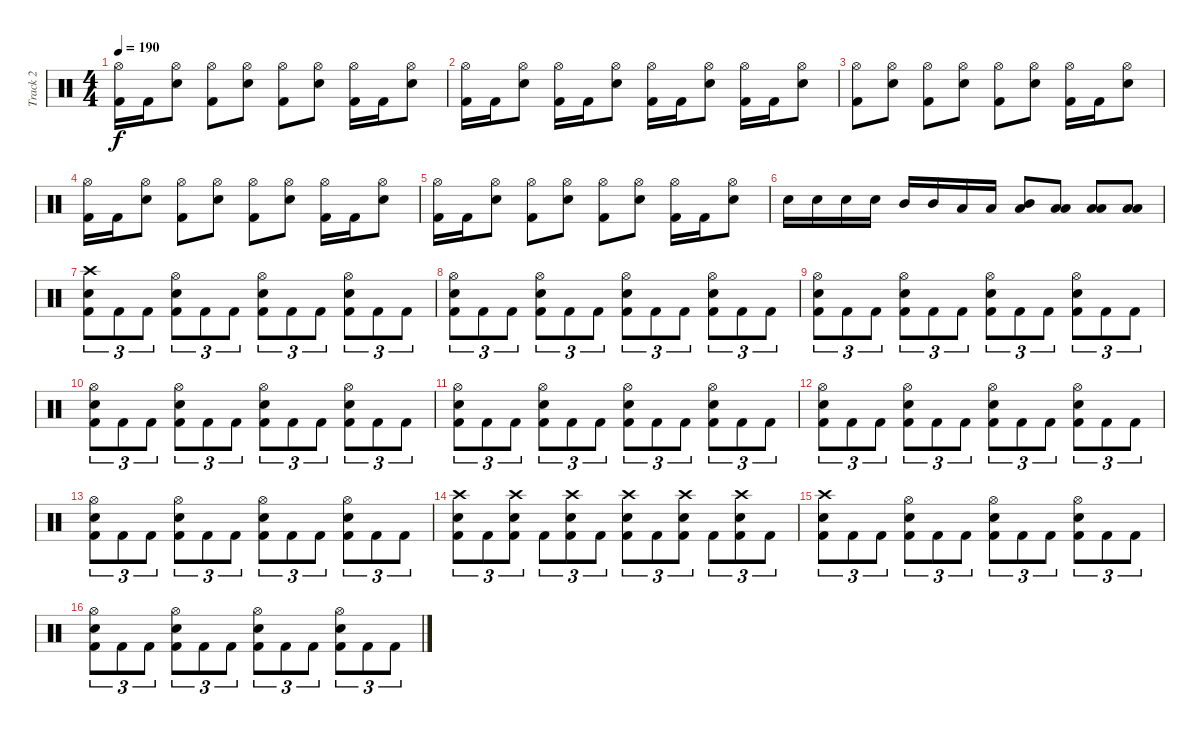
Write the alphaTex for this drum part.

\track ("Track 2" "Track 2") {instrument percussion}
\staff {score}
\articulation defaults
\ts (4 4)
\tempo 190
\clef neutral
\ks c
("Hi-Hat (open)" "Kick (hit) 2").16{dy f} "Kick (hit) 2".16 ("Hi-Hat (open)" "Snare (hit) 2").8 ("Hi-Hat (open)" "Kick (hit) 2").8 ("Hi-Hat (open)" "Snare (hit) 2").8 ("Hi-Hat (open)" "Kick (hit) 2").8 ("Hi-Hat (open)" "Snare (hit) 2").8 ("Hi-Hat (open)" "Kick (hit) 2").16 "Kick (hit) 2".16 ("Hi-Hat (open)" "Snare (hit) 2").8 |
("Hi-Hat (open)" "Kick (hit) 2").16 "Kick (hit) 2".16 ("Hi-Hat (open)" "Snare (hit) 2").8 ("Hi-Hat (open)" "Kick (hit) 2").16 "Kick (hit) 2".16 ("Hi-Hat (open)" "Snare (hit) 2").8 ("Hi-Hat (open)" "Kick (hit) 2").16 "Kick (hit) 2".16 ("Hi-Hat (open)" "Snare (hit) 2").8 ("Hi-Hat (open)" "Kick (hit) 2").16 "Kick (hit) 2".16 ("Hi-Hat (open)" "Snare (hit) 2").8 |
("Hi-Hat (open)" "Kick (hit) 2").8 ("Hi-Hat (open)" "Snare (hit) 2").8 ("Hi-Hat (open)" "Kick (hit) 2").8 ("Hi-Hat (open)" "Snare (hit) 2").8 ("Hi-Hat (open)" "Kick (hit) 2").8 ("Hi-Hat (open)" "Snare (hit) 2").8 ("Hi-Hat (open)" "Kick (hit) 2").16 "Kick (hit) 2".16 ("Hi-Hat (open)" "Snare (hit) 2").8 |
("Hi-Hat (open)" "Kick (hit) 2").16 "Kick (hit) 2".16 ("Hi-Hat (open)" "Snare (hit) 2").8 ("Hi-Hat (open)" "Kick (hit) 2").8 ("Hi-Hat (open)" "Snare (hit) 2").8 ("Hi-Hat (open)" "Kick (hit) 2").8 ("Hi-Hat (open)" "Snare (hit) 2").8 ("Hi-Hat (open)" "Kick (hit) 2").16 "Kick (hit) 2".16 ("Hi-Hat (open)" "Snare (hit) 2").8 |
("Hi-Hat (open)" "Kick (hit) 2").16 "Kick (hit) 2".16 ("Hi-Hat (open)" "Snare (hit) 2").8 ("Hi-Hat (open)" "Kick (hit) 2").8 ("Hi-Hat (open)" "Snare (hit) 2").8 ("Hi-Hat (open)" "Kick (hit) 2").8 ("Hi-Hat (open)" "Snare (hit) 2").8 ("Hi-Hat (open)" "Kick (hit) 2").16 "Kick (hit) 2".16 ("Hi-Hat (open)" "Snare (hit) 2").8 |
"Snare (hit) 2".16 "Snare (hit) 2".16 "Snare (hit) 2".16 "Snare (hit) 2".16 "Mid Tom (hit)".16 "Mid Tom (hit)".16 "Low Tom (hit)".16 "Low Tom (hit)".16 ("Mid Tom (hit)" "Low Tom (hit)").8 ("Low Tom (hit)" "Low Floor Tom (hit)").8 ("Low Tom (hit)" "Low Floor Tom (hit)").8 ("Low Tom (hit)" "Low Floor Tom (hit)").8 |
("Crash high (hit)" "Snare (hit) 2" "Kick (hit) 2").8{tu (3 2)} "Kick (hit) 2".8{tu (3 2)} "Kick (hit) 2".8{tu (3 2)} ("Hi-Hat (open)" "Snare (hit) 2" "Kick (hit) 2").8{tu (3 2)} "Kick (hit) 2".8{tu (3 2)} "Kick (hit) 2".8{tu (3 2)} ("Hi-Hat (open)" "Snare (hit) 2" "Kick (hit) 2").8{tu (3 2)} "Kick (hit) 2".8{tu (3 2)} "Kick (hit) 2".8{tu (3 2)} ("Hi-Hat (open)" "Snare (hit) 2" "Kick (hit) 2").8{tu (3 2)} "Kick (hit) 2".8{tu (3 2)} "Kick (hit) 2".8{tu (3 2)} |
("Hi-Hat (open)" "Snare (hit) 2" "Kick (hit) 2").8{tu (3 2)} "Kick (hit) 2".8{tu (3 2)} "Kick (hit) 2".8{tu (3 2)} ("Hi-Hat (open)" "Snare (hit) 2" "Kick (hit) 2").8{tu (3 2)} "Kick (hit) 2".8{tu (3 2)} "Kick (hit) 2".8{tu (3 2)} ("Hi-Hat (open)" "Snare (hit) 2" "Kick (hit) 2").8{tu (3 2)} "Kick (hit) 2".8{tu (3 2)} "Kick (hit) 2".8{tu (3 2)} ("Hi-Hat (open)" "Snare (hit) 2" "Kick (hit) 2").8{tu (3 2)} "Kick (hit) 2".8{tu (3 2)} "Kick (hit) 2".8{tu (3 2)} |
("Hi-Hat (open)" "Snare (hit) 2" "Kick (hit) 2").8{tu (3 2)} "Kick (hit) 2".8{tu (3 2)} "Kick (hit) 2".8{tu (3 2)} ("Hi-Hat (open)" "Snare (hit) 2" "Kick (hit) 2").8{tu (3 2)} "Kick (hit) 2".8{tu (3 2)} "Kick (hit) 2".8{tu (3 2)} ("Hi-Hat (open)" "Snare (hit) 2" "Kick (hit) 2").8{tu (3 2)} "Kick (hit) 2".8{tu (3 2)} "Kick (hit) 2".8{tu (3 2)} ("Hi-Hat (open)" "Snare (hit) 2" "Kick (hit) 2").8{tu (3 2)} "Kick (hit) 2".8{tu (3 2)} "Kick (hit) 2".8{tu (3 2)} |
("Hi-Hat (open)" "Snare (hit) 2" "Kick (hit) 2").8{tu (3 2)} "Kick (hit) 2".8{tu (3 2)} "Kick (hit) 2".8{tu (3 2)} ("Hi-Hat (open)" "Snare (hit) 2" "Kick (hit) 2").8{tu (3 2)} "Kick (hit) 2".8{tu (3 2)} "Kick (hit) 2".8{tu (3 2)} ("Hi-Hat (open)" "Snare (hit) 2" "Kick (hit) 2").8{tu (3 2)} "Kick (hit) 2".8{tu (3 2)} "Kick (hit) 2".8{tu (3 2)} ("Hi-Hat (open)" "Snare (hit) 2" "Kick (hit) 2").8{tu (3 2)} "Kick (hit) 2".8{tu (3 2)} "Kick (hit) 2".8{tu (3 2)} |
("Hi-Hat (open)" "Snare (hit) 2" "Kick (hit) 2").8{tu (3 2)} "Kick (hit) 2".8{tu (3 2)} "Kick (hit) 2".8{tu (3 2)} ("Hi-Hat (open)" "Snare (hit) 2" "Kick (hit) 2").8{tu (3 2)} "Kick (hit) 2".8{tu (3 2)} "Kick (hit) 2".8{tu (3 2)} ("Hi-Hat (open)" "Snare (hit) 2" "Kick (hit) 2").8{tu (3 2)} "Kick (hit) 2".8{tu (3 2)} "Kick (hit) 2".8{tu (3 2)} ("Hi-Hat (open)" "Snare (hit) 2" "Kick (hit) 2").8{tu (3 2)} "Kick (hit) 2".8{tu (3 2)} "Kick (hit) 2".8{tu (3 2)} |
("Hi-Hat (open)" "Snare (hit) 2" "Kick (hit) 2").8{tu (3 2)} "Kick (hit) 2".8{tu (3 2)} "Kick (hit) 2".8{tu (3 2)} ("Hi-Hat (open)" "Snare (hit) 2" "Kick (hit) 2").8{tu (3 2)} "Kick (hit) 2".8{tu (3 2)} "Kick (hit) 2".8{tu (3 2)} ("Hi-Hat (open)" "Snare (hit) 2" "Kick (hit) 2").8{tu (3 2)} "Kick (hit) 2".8{tu (3 2)} "Kick (hit) 2".8{tu (3 2)} ("Hi-Hat (open)" "Snare (hit) 2" "Kick (hit) 2").8{tu (3 2)} "Kick (hit) 2".8{tu (3 2)} "Kick (hit) 2".8{tu (3 2)} |
("Hi-Hat (open)" "Snare (hit) 2" "Kick (hit) 2").8{tu (3 2)} "Kick (hit) 2".8{tu (3 2)} "Kick (hit) 2".8{tu (3 2)} ("Hi-Hat (open)" "Snare (hit) 2" "Kick (hit) 2").8{tu (3 2)} "Kick (hit) 2".8{tu (3 2)} "Kick (hit) 2".8{tu (3 2)} ("Hi-Hat (open)" "Snare (hit) 2" "Kick (hit) 2").8{tu (3 2)} "Kick (hit) 2".8{tu (3 2)} "Kick (hit) 2".8{tu (3 2)} ("Hi-Hat (open)" "Snare (hit) 2" "Kick (hit) 2").8{tu (3 2)} "Kick (hit) 2".8{tu (3 2)} "Kick (hit) 2".8{tu (3 2)} |
("Crash high (hit)" "Snare (hit) 2" "Kick (hit) 2").8{tu (3 2)} "Kick (hit) 2".8{tu (3 2)} ("Crash high (hit)" "Snare (hit) 2" "Kick (hit) 2").8{tu (3 2)} "Kick (hit) 2".8{tu (3 2)} ("Crash high (hit)" "Snare (hit) 2" "Kick (hit) 2").8{tu (3 2)} "Kick (hit) 2".8{tu (3 2)} ("Crash high (hit)" "Snare (hit) 2" "Kick (hit) 2").8{tu (3 2)} "Kick (hit) 2".8{tu (3 2)} ("Crash high (hit)" "Snare (hit) 2" "Kick (hit) 2").8{tu (3 2)} "Kick (hit) 2".8{tu (3 2)} ("Crash high (hit)" "Snare (hit) 2" "Kick (hit) 2").8{tu (3 2)} "Kick (hit) 2".8{tu (3 2)} |
("Crash high (hit)" "Snare (hit) 2" "Kick (hit) 2").8{tu (3 2)} "Kick (hit) 2".8{tu (3 2)} "Kick (hit) 2".8{tu (3 2)} ("Hi-Hat (open)" "Snare (hit) 2" "Kick (hit) 2").8{tu (3 2)} "Kick (hit) 2".8{tu (3 2)} "Kick (hit) 2".8{tu (3 2)} ("Hi-Hat (open)" "Snare (hit) 2" "Kick (hit) 2").8{tu (3 2)} "Kick (hit) 2".8{tu (3 2)} "Kick (hit) 2".8{tu (3 2)} ("Hi-Hat (open)" "Snare (hit) 2" "Kick (hit) 2").8{tu (3 2)} "Kick (hit) 2".8{tu (3 2)} "Kick (hit) 2".8{tu (3 2)} |
("Hi-Hat (open)" "Snare (hit) 2" "Kick (hit) 2").8{tu (3 2)} "Kick (hit) 2".8{tu (3 2)} "Kick (hit) 2".8{tu (3 2)} ("Hi-Hat (open)" "Snare (hit) 2" "Kick (hit) 2").8{tu (3 2)} "Kick (hit) 2".8{tu (3 2)} "Kick (hit) 2".8{tu (3 2)} ("Hi-Hat (open)" "Snare (hit) 2" "Kick (hit) 2").8{tu (3 2)} "Kick (hit) 2".8{tu (3 2)} "Kick (hit) 2".8{tu (3 2)} ("Hi-Hat (open)" "Snare (hit) 2" "Kick (hit) 2").8{tu (3 2)} "Kick (hit) 2".8{tu (3 2)} "Kick (hit) 2".8{tu (3 2)}
